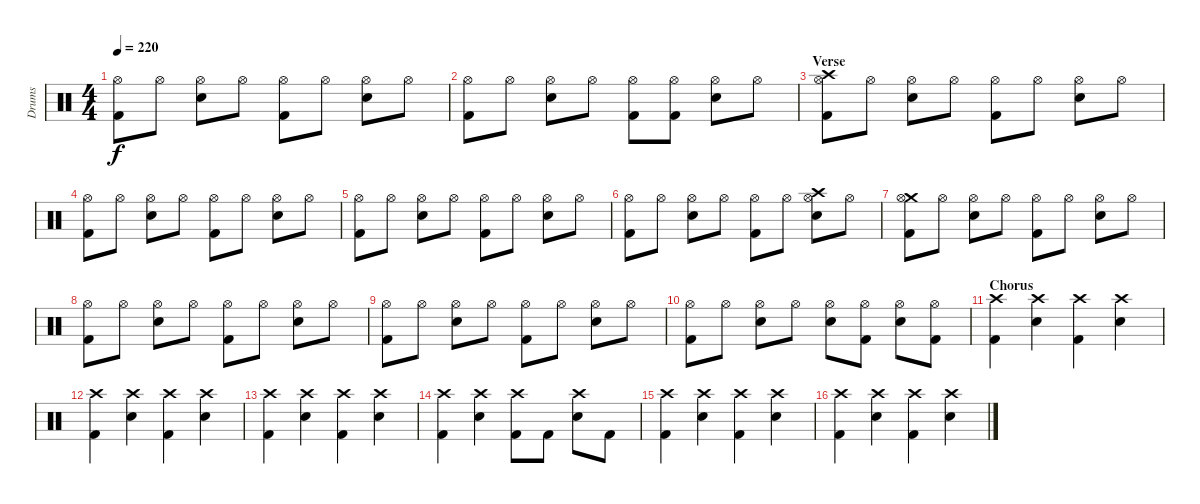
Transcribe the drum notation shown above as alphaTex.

\track ("Drums" "Drums") {instrument percussion}
\staff {score}
\articulation defaults
\ts (4 4)
\tempo 220
\clef neutral
\ks c
("Hi-Hat (open)" "Kick (hit) 2").8{dy f} "Hi-Hat (open)".8 ("Hi-Hat (open)" "Electric Snare (hit)").8 "Hi-Hat (open)".8 ("Hi-Hat (open)" "Kick (hit) 2").8 "Hi-Hat (open)".8 ("Hi-Hat (open)" "Electric Snare (hit)").8 "Hi-Hat (open)".8 |
("Hi-Hat (open)" "Kick (hit) 2").8 "Hi-Hat (open)".8 ("Hi-Hat (open)" "Electric Snare (hit)").8 "Hi-Hat (open)".8 ("Hi-Hat (open)" "Kick (hit) 2").8 ("Hi-Hat (open)" "Kick (hit) 2").8 ("Hi-Hat (open)" "Electric Snare (hit)").8 "Hi-Hat (open)".8 |
\section ("" "Verse")
("Crash high (hit)" "Hi-Hat (open)" "Kick (hit) 2").8 "Hi-Hat (open)".8 ("Hi-Hat (open)" "Electric Snare (hit)").8 "Hi-Hat (open)".8 ("Hi-Hat (open)" "Kick (hit) 2").8 "Hi-Hat (open)".8 ("Hi-Hat (open)" "Electric Snare (hit)").8 "Hi-Hat (open)".8 |
("Hi-Hat (open)" "Kick (hit) 2").8 "Hi-Hat (open)".8 ("Hi-Hat (open)" "Electric Snare (hit)").8 "Hi-Hat (open)".8 ("Hi-Hat (open)" "Kick (hit) 2").8 "Hi-Hat (open)".8 ("Hi-Hat (open)" "Electric Snare (hit)").8 "Hi-Hat (open)".8 |
("Hi-Hat (open)" "Kick (hit) 2").8 "Hi-Hat (open)".8 ("Hi-Hat (open)" "Electric Snare (hit)").8 "Hi-Hat (open)".8 ("Hi-Hat (open)" "Kick (hit) 2").8 "Hi-Hat (open)".8 ("Hi-Hat (open)" "Electric Snare (hit)").8 "Hi-Hat (open)".8 |
("Hi-Hat (open)" "Kick (hit) 2").8 "Hi-Hat (open)".8 ("Hi-Hat (open)" "Electric Snare (hit)").8 "Hi-Hat (open)".8 ("Hi-Hat (open)" "Kick (hit) 2").8 "Hi-Hat (open)".8 ("Crash high (hit)" "Hi-Hat (open)" "Electric Snare (hit)").8 "Hi-Hat (open)".8 |
("Crash medium (hit)" "Hi-Hat (open)" "Kick (hit) 2").8 "Hi-Hat (open)".8 ("Hi-Hat (open)" "Electric Snare (hit)").8 "Hi-Hat (open)".8 ("Hi-Hat (open)" "Kick (hit) 2").8 "Hi-Hat (open)".8 ("Hi-Hat (open)" "Electric Snare (hit)").8 "Hi-Hat (open)".8 |
("Hi-Hat (open)" "Kick (hit) 2").8 "Hi-Hat (open)".8 ("Hi-Hat (open)" "Electric Snare (hit)").8 "Hi-Hat (open)".8 ("Hi-Hat (open)" "Kick (hit) 2").8 "Hi-Hat (open)".8 ("Hi-Hat (open)" "Electric Snare (hit)").8 "Hi-Hat (open)".8 |
("Hi-Hat (open)" "Kick (hit) 2").8 "Hi-Hat (open)".8 ("Hi-Hat (open)" "Electric Snare (hit)").8 "Hi-Hat (open)".8 ("Hi-Hat (open)" "Kick (hit) 2").8 "Hi-Hat (open)".8 ("Hi-Hat (open)" "Electric Snare (hit)").8 "Hi-Hat (open)".8 |
("Hi-Hat (open)" "Kick (hit) 2").8 "Hi-Hat (open)".8 ("Hi-Hat (open)" "Electric Snare (hit)").8 "Hi-Hat (open)".8 ("Hi-Hat (open)" "Electric Snare (hit)").8 ("Hi-Hat (open)" "Kick (hit) 2").8 ("Hi-Hat (open)" "Electric Snare (hit)").8 ("Hi-Hat (open)" "Kick (hit) 2").8 |
\section ("" "Chorus")
("Crash high (hit)" "Kick (hit) 2").4 ("Crash high (hit)" "Electric Snare (hit)").4 ("Crash high (hit)" "Kick (hit) 2").4 ("Crash high (hit)" "Electric Snare (hit)").4 |
("Crash high (hit)" "Kick (hit) 2").4 ("Crash high (hit)" "Electric Snare (hit)").4 ("Crash high (hit)" "Kick (hit) 2").4 ("Crash high (hit)" "Electric Snare (hit)").4 |
("Crash high (hit)" "Kick (hit) 2").4 ("Crash high (hit)" "Electric Snare (hit)").4 ("Crash high (hit)" "Kick (hit) 2").4 ("Crash high (hit)" "Electric Snare (hit)").4 |
("Crash high (hit)" "Kick (hit) 2").4 ("Crash high (hit)" "Electric Snare (hit)").4 ("Crash high (hit)" "Kick (hit) 2").8 "Kick (hit) 2".8 ("Crash high (hit)" "Electric Snare (hit)").8 "Kick (hit) 2".8 |
("Crash high (hit)" "Kick (hit) 2").4 ("Crash high (hit)" "Electric Snare (hit)").4 ("Crash high (hit)" "Kick (hit) 2").4 ("Crash high (hit)" "Electric Snare (hit)").4 |
("Crash high (hit)" "Kick (hit) 2").4 ("Crash high (hit)" "Electric Snare (hit)").4 ("Crash high (hit)" "Kick (hit) 2").4 ("Crash high (hit)" "Electric Snare (hit)").4
